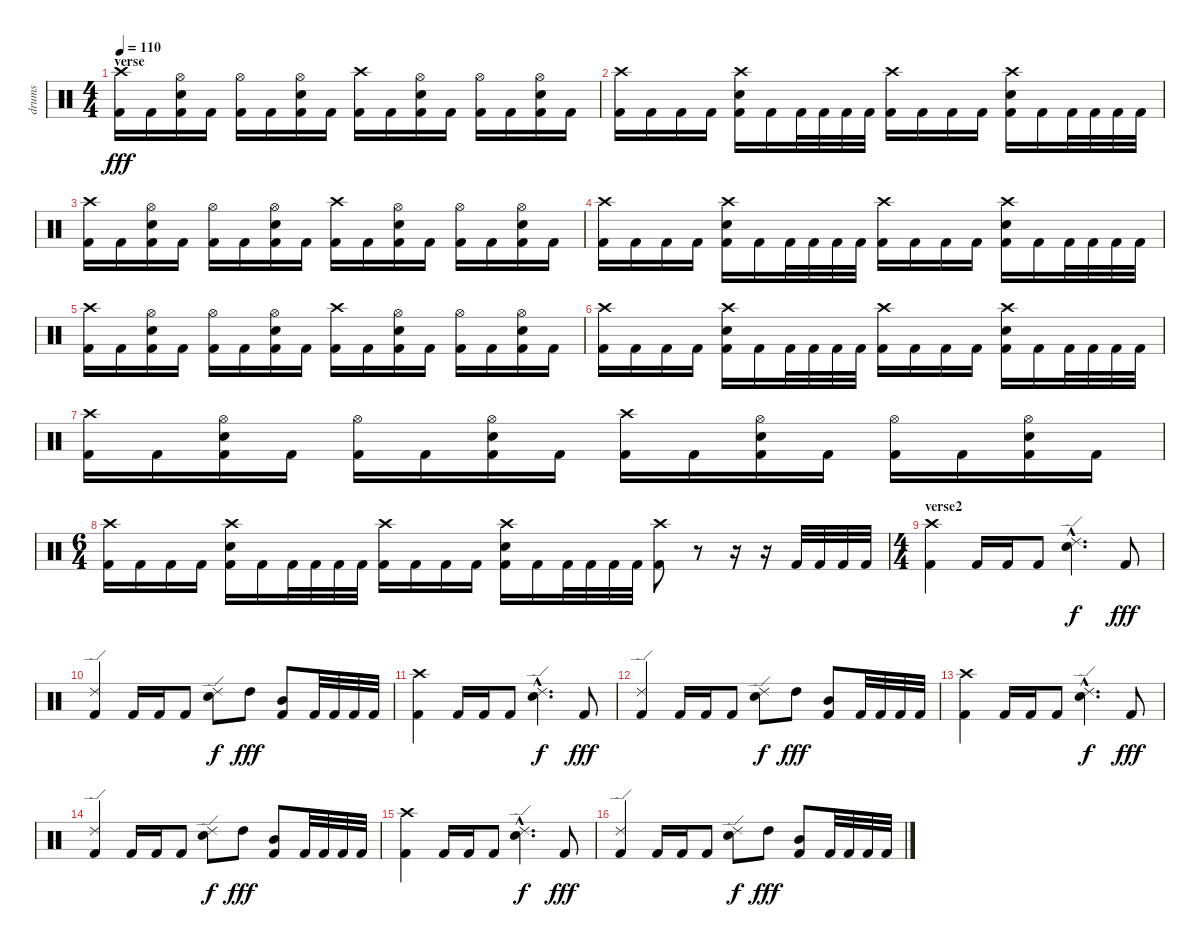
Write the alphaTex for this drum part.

\track ("drums" "drums") {instrument percussion}
\staff {score}
\articulation defaults
\ts (4 4)
\section ("" "verse")
\tempo 110
\clef neutral
\ks c
("Crash high (hit)" "Kick (hit) 2").16{dy fff} "Kick (hit) 2".16 ("Hi-Hat (open)" "Snare (hit) 2" "Kick (hit) 2").16 "Kick (hit) 2".16 ("Hi-Hat (open)" "Kick (hit) 2").16 "Kick (hit) 2".16 ("Hi-Hat (open)" "Snare (hit) 2" "Kick (hit) 2").16 "Kick (hit) 2".16 ("Crash high (hit)" "Kick (hit) 2").16 "Kick (hit) 2".16 ("Hi-Hat (open)" "Snare (hit) 2" "Kick (hit) 2").16 "Kick (hit) 2".16 ("Hi-Hat (open)" "Kick (hit) 2").16 "Kick (hit) 2".16 ("Hi-Hat (open)" "Snare (hit) 2" "Kick (hit) 2").16 "Kick (hit) 2".16 |
("Crash high (hit)" "Kick (hit) 2").16 "Kick (hit) 2".16 "Kick (hit) 2".16 "Kick (hit) 2".16 ("Crash high (hit)" "Snare (hit) 2" "Kick (hit) 2").16 "Kick (hit) 2".16 "Kick (hit) 2".32 "Kick (hit) 2".32 "Kick (hit) 2".32 "Kick (hit) 2".32 ("Crash high (hit)" "Kick (hit) 2").16 "Kick (hit) 2".16 "Kick (hit) 2".16 "Kick (hit) 2".16 ("Crash high (hit)" "Snare (hit) 2" "Kick (hit) 2").16 "Kick (hit) 2".16 "Kick (hit) 2".32 "Kick (hit) 2".32 "Kick (hit) 2".32 "Kick (hit) 2".32 |
("Crash high (hit)" "Kick (hit) 2").16 "Kick (hit) 2".16 ("Hi-Hat (open)" "Snare (hit) 2" "Kick (hit) 2").16 "Kick (hit) 2".16 ("Hi-Hat (open)" "Kick (hit) 2").16 "Kick (hit) 2".16 ("Hi-Hat (open)" "Snare (hit) 2" "Kick (hit) 2").16 "Kick (hit) 2".16 ("Crash high (hit)" "Kick (hit) 2").16 "Kick (hit) 2".16 ("Hi-Hat (open)" "Snare (hit) 2" "Kick (hit) 2").16 "Kick (hit) 2".16 ("Hi-Hat (open)" "Kick (hit) 2").16 "Kick (hit) 2".16 ("Hi-Hat (open)" "Snare (hit) 2" "Kick (hit) 2").16 "Kick (hit) 2".16 |
("Crash high (hit)" "Kick (hit) 2").16 "Kick (hit) 2".16 "Kick (hit) 2".16 "Kick (hit) 2".16 ("Crash high (hit)" "Snare (hit) 2" "Kick (hit) 2").16 "Kick (hit) 2".16 "Kick (hit) 2".32 "Kick (hit) 2".32 "Kick (hit) 2".32 "Kick (hit) 2".32 ("Crash high (hit)" "Kick (hit) 2").16 "Kick (hit) 2".16 "Kick (hit) 2".16 "Kick (hit) 2".16 ("Crash high (hit)" "Snare (hit) 2" "Kick (hit) 2").16 "Kick (hit) 2".16 "Kick (hit) 2".32 "Kick (hit) 2".32 "Kick (hit) 2".32 "Kick (hit) 2".32 |
("Crash high (hit)" "Kick (hit) 2").16 "Kick (hit) 2".16 ("Hi-Hat (open)" "Snare (hit) 2" "Kick (hit) 2").16 "Kick (hit) 2".16 ("Hi-Hat (open)" "Kick (hit) 2").16 "Kick (hit) 2".16 ("Hi-Hat (open)" "Snare (hit) 2" "Kick (hit) 2").16 "Kick (hit) 2".16 ("Crash high (hit)" "Kick (hit) 2").16 "Kick (hit) 2".16 ("Hi-Hat (open)" "Snare (hit) 2" "Kick (hit) 2").16 "Kick (hit) 2".16 ("Hi-Hat (open)" "Kick (hit) 2").16 "Kick (hit) 2".16 ("Hi-Hat (open)" "Snare (hit) 2" "Kick (hit) 2").16 "Kick (hit) 2".16 |
("Crash high (hit)" "Kick (hit) 2").16 "Kick (hit) 2".16 "Kick (hit) 2".16 "Kick (hit) 2".16 ("Crash high (hit)" "Snare (hit) 2" "Kick (hit) 2").16 "Kick (hit) 2".16 "Kick (hit) 2".32 "Kick (hit) 2".32 "Kick (hit) 2".32 "Kick (hit) 2".32 ("Crash high (hit)" "Kick (hit) 2").16 "Kick (hit) 2".16 "Kick (hit) 2".16 "Kick (hit) 2".16 ("Crash high (hit)" "Snare (hit) 2" "Kick (hit) 2").16 "Kick (hit) 2".16 "Kick (hit) 2".32 "Kick (hit) 2".32 "Kick (hit) 2".32 "Kick (hit) 2".32 |
("Crash high (hit)" "Kick (hit) 2").16 "Kick (hit) 2".16 ("Hi-Hat (open)" "Snare (hit) 2" "Kick (hit) 2").16 "Kick (hit) 2".16 ("Hi-Hat (open)" "Kick (hit) 2").16 "Kick (hit) 2".16 ("Hi-Hat (open)" "Snare (hit) 2" "Kick (hit) 2").16 "Kick (hit) 2".16 ("Crash high (hit)" "Kick (hit) 2").16 "Kick (hit) 2".16 ("Hi-Hat (open)" "Snare (hit) 2" "Kick (hit) 2").16 "Kick (hit) 2".16 ("Hi-Hat (open)" "Kick (hit) 2").16 "Kick (hit) 2".16 ("Hi-Hat (open)" "Snare (hit) 2" "Kick (hit) 2").16 "Kick (hit) 2".16 |
\ts (6 4)
("Crash high (hit)" "Kick (hit) 2").16 "Kick (hit) 2".16 "Kick (hit) 2".16 "Kick (hit) 2".16 ("Crash high (hit)" "Snare (hit) 2" "Kick (hit) 2").16 "Kick (hit) 2".16 "Kick (hit) 2".32 "Kick (hit) 2".32 "Kick (hit) 2".32 "Kick (hit) 2".32 ("Crash high (hit)" "Kick (hit) 2").16 "Kick (hit) 2".16 "Kick (hit) 2".16 "Kick (hit) 2".16 ("Crash high (hit)" "Snare (hit) 2" "Kick (hit) 2").16 "Kick (hit) 2".16 "Kick (hit) 2".32 "Kick (hit) 2".32 "Kick (hit) 2".32 "Kick (hit) 2".32 ("Crash high (hit)" "Kick (hit) 2").8 r.8 r.16 r.16 "Kick (hit) 2".32 "Kick (hit) 2".32 "Kick (hit) 2".32 "Kick (hit) 2".32 |
\ts (4 4)
\section ("" "verse2")
("Crash high (hit)" "Kick (hit) 2").4 "Kick (hit) 2".16 "Kick (hit) 2".16 "Kick (hit) 2".8 ("Ride (edge) 2"{hac} "Snare (hit) 2"{hac}).4{d dy f} "Kick (hit) 2".8{dy fff} |
("Ride (edge) 2" "Kick (hit) 2").4 "Kick (hit) 2".16 "Kick (hit) 2".16 "Kick (hit) 2".8 ("Ride (edge) 2" "Snare (hit) 2").8{dy f} "High Tom (hit)".8{dy fff} ("Mid Tom (hit)" "Kick (hit) 2").8 "Kick (hit) 2".32 "Kick (hit) 2".32 "Kick (hit) 2".32 "Kick (hit) 2".32 |
("Crash high (hit)" "Kick (hit) 2").4 "Kick (hit) 2".16 "Kick (hit) 2".16 "Kick (hit) 2".8 ("Ride (edge) 2"{hac} "Snare (hit) 2"{hac}).4{d dy f} "Kick (hit) 2".8{dy fff} |
("Ride (edge) 2" "Kick (hit) 2").4 "Kick (hit) 2".16 "Kick (hit) 2".16 "Kick (hit) 2".8 ("Ride (edge) 2" "Snare (hit) 2").8{dy f} "High Tom (hit)".8{dy fff} ("Mid Tom (hit)" "Kick (hit) 2").8 "Kick (hit) 2".32 "Kick (hit) 2".32 "Kick (hit) 2".32 "Kick (hit) 2".32 |
("Crash high (hit)" "Kick (hit) 2").4 "Kick (hit) 2".16 "Kick (hit) 2".16 "Kick (hit) 2".8 ("Ride (edge) 2"{hac} "Snare (hit) 2"{hac}).4{d dy f} "Kick (hit) 2".8{dy fff} |
("Ride (edge) 2" "Kick (hit) 2").4 "Kick (hit) 2".16 "Kick (hit) 2".16 "Kick (hit) 2".8 ("Ride (edge) 2" "Snare (hit) 2").8{dy f} "High Tom (hit)".8{dy fff} ("Mid Tom (hit)" "Kick (hit) 2").8 "Kick (hit) 2".32 "Kick (hit) 2".32 "Kick (hit) 2".32 "Kick (hit) 2".32 |
("Crash high (hit)" "Kick (hit) 2").4 "Kick (hit) 2".16 "Kick (hit) 2".16 "Kick (hit) 2".8 ("Ride (edge) 2"{hac} "Snare (hit) 2"{hac}).4{d dy f} "Kick (hit) 2".8{dy fff} |
("Ride (edge) 2" "Kick (hit) 2").4 "Kick (hit) 2".16 "Kick (hit) 2".16 "Kick (hit) 2".8 ("Ride (edge) 2" "Snare (hit) 2").8{dy f} "High Tom (hit)".8{dy fff} ("Mid Tom (hit)" "Kick (hit) 2").8 "Kick (hit) 2".32 "Kick (hit) 2".32 "Kick (hit) 2".32 "Kick (hit) 2".32
